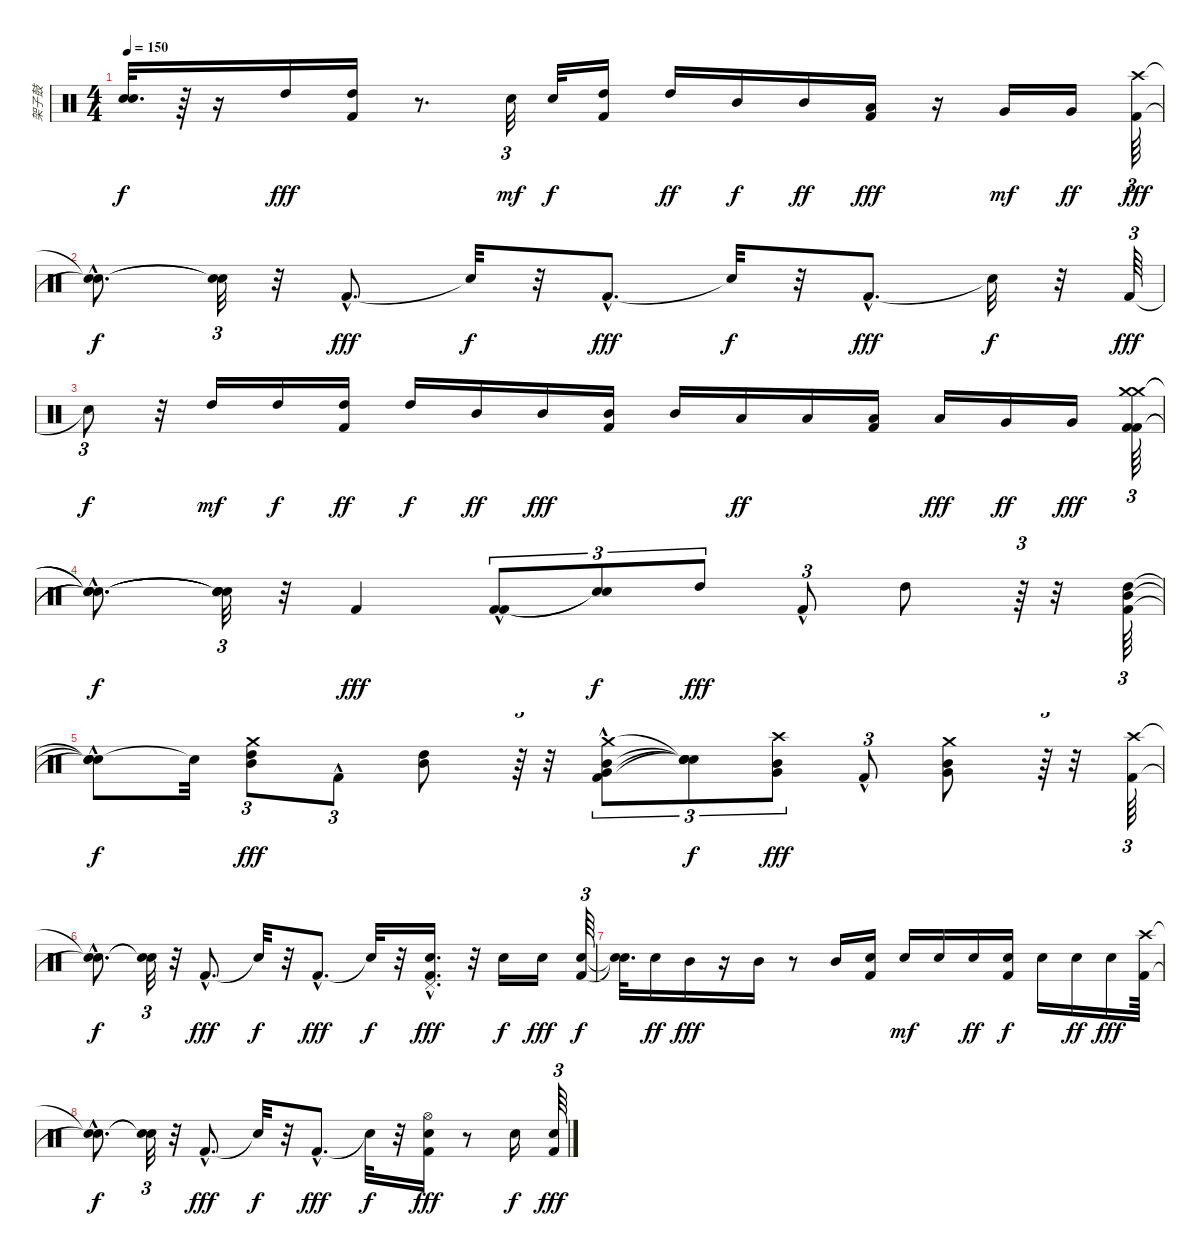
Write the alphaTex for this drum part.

\track ("架子鼓" "架子鼓") {instrument percussion}
\staff {score}
\articulation defaults
\ts (4 4)
\tempo 150
\clef neutral
\ks c
("Snare (hit)"{t} "Snare (hit)"{t}).32{d dy f} r.64 r.16 "High Tom (hit)".16{dy fff} ("Kick (hit) 2" "High Tom (hit)").16 r.8{d} "Snare (hit) 2".32{tu (3 2) dy mf} "Snare (hit) 2".32{dy f} ("High Tom (hit)" "Kick (hit) 2").16 "High Tom (hit)".16{dy ff} "Mid Tom (hit)".16{dy f} "Mid Tom (hit)".16{dy ff} ("Low Tom (hit)" "Kick (hit) 2").16{dy fff} r.16 "Very Low Tom (hit)".16{dy mf} "Very Low Tom (hit)".16{dy ff} ("Crash high (hit)" "Kick (hit) 2").64{tu (3 2) dy fff} |
("Snare (hit)"{hac t} "Snare (hit)"{hac t}).8{d dy f} ("Snare (hit)"{t} "Snare (hit)"{t}).32{tu (3 2)} r.32 "Kick (hit) 2"{hac}.8{d dy fff} "Snare (hit)"{t}.32{dy f} r.32 "Kick (hit) 2"{hac}.8{d dy fff} "Snare (hit)"{t}.32{dy f} r.32 "Kick (hit) 2"{hac}.8{d dy fff} "Snare (hit)"{t}.32{dy f} r.32 "Kick (hit) 2".64{tu (3 2) dy fff} |
"Snare (hit)"{t}.8{tu (3 2) dy f} r.32 "High Tom (hit)".16{dy mf} "High Tom (hit)".16{dy f} ("Kick (hit) 2" "High Tom (hit)").16{dy ff} "High Tom (hit)".16{dy f} "Mid Tom (hit)".16{dy ff} "Mid Tom (hit)".16{dy fff} ("Mid Tom (hit)" "Kick (hit) 2").16 "Mid Tom (hit)".16 "Low Tom (hit)".16{dy ff} "Low Tom (hit)".16 ("Low Tom (hit)" "Kick (hit) 2").16 "Low Tom (hit)".16{dy fff} "Very Low Tom (hit)".16{dy ff} "Very Low Tom (hit)".16{dy fff} ("Crash medium (hit)" "Kick (hit) 2" "Crash medium (hit)" "Kick (hit) 2").64{tu (3 2)} |
("Snare (hit)"{hac t} "Snare (hit)"{hac t} "Snare (hit)"{hac t} "Snare (hit)"{hac t}).8{d dy f} ("Snare (hit)"{t} "Snare (hit)"{t} "Snare (hit)"{t} "Snare (hit)"{t}).32{tu (3 2)} r.32 "Kick (hit) 2".4{dy fff} ("Kick (hit) 2"{hac} "Kick (hit) 2"{hac}).8{tu (3 2)} ("Snare (hit)"{t} "Snare (hit)"{t}).8{tu (3 2) dy f} "High Tom (hit)".8{tu (3 2) dy fff} "Kick (hit) 2"{hac}.8{tu (3 2)} "High Tom (hit)".8 r.64{tu (3 2)} r.32 ("Mid Tom (hit)" "High Tom (hit)" "Kick (hit) 2").64{tu (3 2)} |
("Snare (hit)"{hac t} "Snare (hit)"{hac t} "Snare (hit)"{t}).8{dy f} "Snare (hit)"{t}.32 ("Mid Tom (hit)" "High Tom (hit)" "Crash medium (hit)").8{tu (3 2) dy fff} "Kick (hit) 2"{hac}.8{tu (3 2)} ("Mid Tom (hit)" "High Tom (hit)").8 r.64{tu (3 2)} r.32 ("Mid Tom (hit)" "Very Low Tom (hit)" "Kick (hit) 2"{hac} "Crash medium (hit)").8{tu (3 2)} ("Snare (hit)"{t} "Snare (hit)"{t} "Snare (hit)"{t} "Snare (hit)"{t}).8{tu (3 2) dy f} ("Very Low Tom (hit)" "Mid Tom (hit)" "Crash high (hit)").8{tu (3 2) dy fff} "Kick (hit) 2"{hac}.8{tu (3 2)} ("Mid Tom (hit)" "Very Low Tom (hit)" "Crash medium (hit)").8 r.64{tu (3 2)} r.32 ("Crash high (hit)" "Kick (hit) 2").64{tu (3 2)} |
("Snare (hit)"{hac t} "Snare (hit)"{hac t}).8{d dy f} ("Snare (hit)"{t} "Snare (hit)"{t}).32{tu (3 2)} r.32 "Kick (hit) 2"{hac}.8{d dy fff} "Snare (hit)"{t}.32{dy f} r.32 "Kick (hit) 2"{hac}.8{d dy fff} "Snare (hit)"{t}.32{dy f} r.32 ("Pedal Hi-Hat (hit)"{hac} "Snare (hit) 2"{hac} "Kick (hit) 2"{hac}).16{d dy fff} r.32 "Snare (hit) 2".16{dy f} "Snare (hit) 2".16{dy fff} ("Kick (hit) 2" "Snare (hit) 2").64{tu (3 2) dy f} |
("Snare (hit)"{t} "Snare (hit)"{t}).32{d} "Snare (hit) 2".16{dy ff} "Mid Tom (hit)".16{dy fff} r.16 "Mid Tom (hit)".16 r.8 "Mid Tom (hit)".16 ("Snare (hit) 2" "Kick (hit) 2").16 "Snare (hit) 2".16{dy mf} "Snare (hit) 2".16 "Snare (hit) 2".16{dy ff} ("Snare (hit) 2" "Kick (hit) 2").16{dy f} "Snare (hit) 2".16 "Snare (hit) 2".16{dy ff} "Snare (hit) 2".16{dy fff} ("Crash high (hit)" "Kick (hit) 2").64 |
("Snare (hit)"{hac t} "Snare (hit)"{hac t}).8{d dy f} ("Snare (hit)"{t} "Snare (hit)"{t}).32{tu (3 2)} r.32 "Kick (hit) 2"{hac}.8{d dy fff} "Snare (hit)"{t}.32{dy f} r.32 "Kick (hit) 2"{hac}.8{d dy fff} "Snare (hit)"{t}.32{dy f} r.32 ("Snare (hit) 2" "Hi-Hat (open)" "Kick (hit) 2").16{dy fff} r.8 "Snare (hit) 2".16{dy f} ("Snare (hit) 2" "Kick (hit) 2").64{tu (3 2) dy fff}
